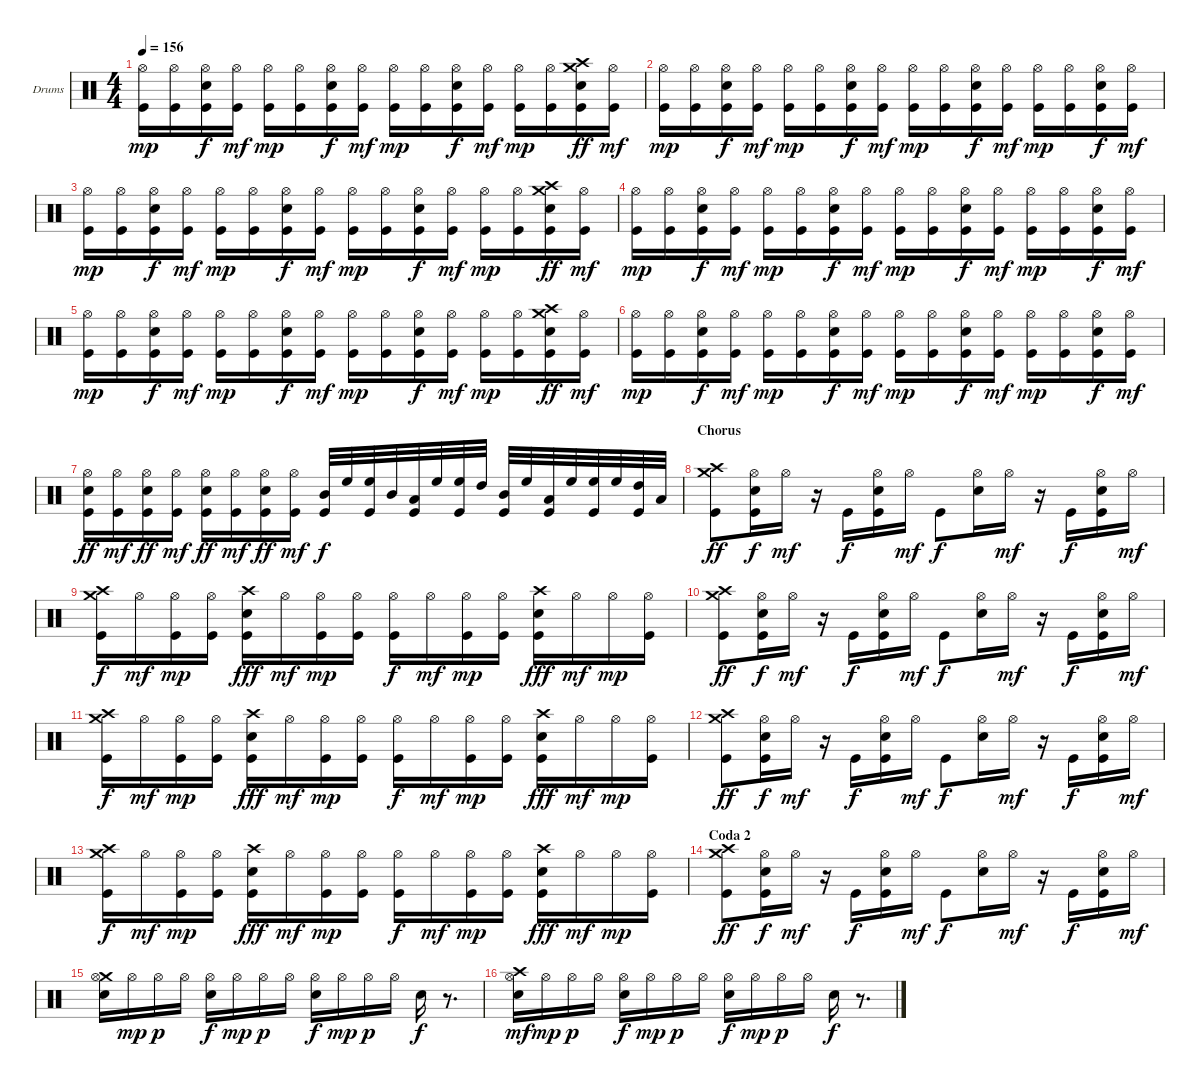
\bracketExtendMode groupsimilarinstruments
\firstSystemTrackNameOrientation horizontal
\otherSystemsTrackNameOrientation horizontal
\track ("Drums" "Drums") {instrument percussion}
\staff {score}
\articulation defaults
\ts (4 4)
\tempo 156
\clef neutral
\ks c
("Hi-Hat (open)" "Kick (hit)").16{dy mp} ("Hi-Hat (open)" "Kick (hit)").16 ("Hi-Hat (open)" "Snare (hit) 2" "Kick (hit)").16{dy f} ("Hi-Hat (open)" "Kick (hit)").16{dy mf} ("Hi-Hat (open)" "Kick (hit)").16{dy mp} ("Hi-Hat (open)" "Kick (hit)").16 ("Hi-Hat (open)" "Snare (hit) 2" "Kick (hit)").16{dy f} ("Hi-Hat (open)" "Kick (hit)").16{dy mf} ("Hi-Hat (open)" "Kick (hit)").16{dy mp} ("Hi-Hat (open)" "Kick (hit)").16 ("Hi-Hat (open)" "Snare (hit) 2" "Kick (hit)").16{dy f} ("Hi-Hat (open)" "Kick (hit)").16{dy mf} ("Hi-Hat (open)" "Kick (hit)").16{dy mp} ("Hi-Hat (open)" "Kick (hit)").16 ("Crash medium (hit)" "Crash high (hit)" "Snare (hit) 2" "Kick (hit)").16{dy ff} ("Hi-Hat (open)" "Kick (hit)").16{dy mf} |
("Hi-Hat (open)" "Kick (hit)").16{dy mp} ("Hi-Hat (open)" "Kick (hit)").16 ("Hi-Hat (open)" "Snare (hit) 2" "Kick (hit)").16{dy f} ("Hi-Hat (open)" "Kick (hit)").16{dy mf} ("Hi-Hat (open)" "Kick (hit)").16{dy mp} ("Hi-Hat (open)" "Kick (hit)").16 ("Hi-Hat (open)" "Snare (hit) 2" "Kick (hit)").16{dy f} ("Hi-Hat (open)" "Kick (hit)").16{dy mf} ("Hi-Hat (open)" "Kick (hit)").16{dy mp} ("Hi-Hat (open)" "Kick (hit)").16 ("Hi-Hat (open)" "Snare (hit) 2" "Kick (hit)").16{dy f} ("Hi-Hat (open)" "Kick (hit)").16{dy mf} ("Hi-Hat (open)" "Kick (hit)").16{dy mp} ("Hi-Hat (open)" "Kick (hit)").16 ("Hi-Hat (open)" "Snare (hit) 2" "Kick (hit)").16{dy f} ("Hi-Hat (open)" "Kick (hit)").16{dy mf} |
("Hi-Hat (open)" "Kick (hit)").16{dy mp} ("Hi-Hat (open)" "Kick (hit)").16 ("Hi-Hat (open)" "Snare (hit) 2" "Kick (hit)").16{dy f} ("Hi-Hat (open)" "Kick (hit)").16{dy mf} ("Hi-Hat (open)" "Kick (hit)").16{dy mp} ("Hi-Hat (open)" "Kick (hit)").16 ("Hi-Hat (open)" "Snare (hit) 2" "Kick (hit)").16{dy f} ("Hi-Hat (open)" "Kick (hit)").16{dy mf} ("Hi-Hat (open)" "Kick (hit)").16{dy mp} ("Hi-Hat (open)" "Kick (hit)").16 ("Hi-Hat (open)" "Snare (hit) 2" "Kick (hit)").16{dy f} ("Hi-Hat (open)" "Kick (hit)").16{dy mf} ("Hi-Hat (open)" "Kick (hit)").16{dy mp} ("Hi-Hat (open)" "Kick (hit)").16 ("Crash medium (hit)" "Crash high (hit)" "Snare (hit) 2" "Kick (hit)").16{dy ff} ("Hi-Hat (open)" "Kick (hit)").16{dy mf} |
("Hi-Hat (open)" "Kick (hit)").16{dy mp} ("Hi-Hat (open)" "Kick (hit)").16 ("Hi-Hat (open)" "Snare (hit) 2" "Kick (hit)").16{dy f} ("Hi-Hat (open)" "Kick (hit)").16{dy mf} ("Hi-Hat (open)" "Kick (hit)").16{dy mp} ("Hi-Hat (open)" "Kick (hit)").16 ("Hi-Hat (open)" "Snare (hit) 2" "Kick (hit)").16{dy f} ("Hi-Hat (open)" "Kick (hit)").16{dy mf} ("Hi-Hat (open)" "Kick (hit)").16{dy mp} ("Hi-Hat (open)" "Kick (hit)").16 ("Hi-Hat (open)" "Snare (hit) 2" "Kick (hit)").16{dy f} ("Hi-Hat (open)" "Kick (hit)").16{dy mf} ("Hi-Hat (open)" "Kick (hit)").16{dy mp} ("Hi-Hat (open)" "Kick (hit)").16 ("Hi-Hat (open)" "Snare (hit) 2" "Kick (hit)").16{dy f} ("Hi-Hat (open)" "Kick (hit)").16{dy mf} |
("Hi-Hat (open)" "Kick (hit)").16{dy mp} ("Hi-Hat (open)" "Kick (hit)").16 ("Hi-Hat (open)" "Snare (hit) 2" "Kick (hit)").16{dy f} ("Hi-Hat (open)" "Kick (hit)").16{dy mf} ("Hi-Hat (open)" "Kick (hit)").16{dy mp} ("Hi-Hat (open)" "Kick (hit)").16 ("Hi-Hat (open)" "Snare (hit) 2" "Kick (hit)").16{dy f} ("Hi-Hat (open)" "Kick (hit)").16{dy mf} ("Hi-Hat (open)" "Kick (hit)").16{dy mp} ("Hi-Hat (open)" "Kick (hit)").16 ("Hi-Hat (open)" "Snare (hit) 2" "Kick (hit)").16{dy f} ("Hi-Hat (open)" "Kick (hit)").16{dy mf} ("Hi-Hat (open)" "Kick (hit)").16{dy mp} ("Hi-Hat (open)" "Kick (hit)").16 ("Crash medium (hit)" "Crash high (hit)" "Snare (hit) 2" "Kick (hit)").16{dy ff} ("Hi-Hat (open)" "Kick (hit)").16{dy mf} |
("Hi-Hat (open)" "Kick (hit)").16{dy mp} ("Hi-Hat (open)" "Kick (hit)").16 ("Hi-Hat (open)" "Snare (hit) 2" "Kick (hit)").16{dy f} ("Hi-Hat (open)" "Kick (hit)").16{dy mf} ("Hi-Hat (open)" "Kick (hit)").16{dy mp} ("Hi-Hat (open)" "Kick (hit)").16 ("Hi-Hat (open)" "Snare (hit) 2" "Kick (hit)").16{dy f} ("Hi-Hat (open)" "Kick (hit)").16{dy mf} ("Hi-Hat (open)" "Kick (hit)").16{dy mp} ("Hi-Hat (open)" "Kick (hit)").16 ("Hi-Hat (open)" "Snare (hit) 2" "Kick (hit)").16{dy f} ("Hi-Hat (open)" "Kick (hit)").16{dy mf} ("Hi-Hat (open)" "Kick (hit)").16{dy mp} ("Hi-Hat (open)" "Kick (hit)").16 ("Hi-Hat (open)" "Snare (hit) 2" "Kick (hit)").16{dy f} ("Hi-Hat (open)" "Kick (hit)").16{dy mf} |
("Hi-Hat (open)" "Snare (hit) 2" "Kick (hit)").16{dy ff} ("Hi-Hat (open)" "Kick (hit)").16{dy mf} ("Hi-Hat (open)" "Snare (hit) 2" "Kick (hit)").16{dy ff} ("Hi-Hat (open)" "Kick (hit)").16{dy mf} ("Hi-Hat (open)" "Snare (hit) 2" "Kick (hit)").16{dy ff} ("Hi-Hat (open)" "Kick (hit)").16{dy mf} ("Hi-Hat (open)" "Snare (hit) 2" "Kick (hit)").16{dy ff} ("Hi-Hat (open)" "Kick (hit)").16{dy mf} ("Mid Tom (hit)" "Kick (hit)").32{dy f} "High Floor Tom (hit)".32 ("High Floor Tom (hit)" "Kick (hit)").32 "Mid Tom (hit)".32 ("Low Tom (hit)" "Kick (hit)").32 "High Floor Tom (hit)".32 ("High Floor Tom (hit)" "Kick (hit)").32 "High Tom (hit)".32 ("Mid Tom (hit)" "Kick (hit)").32 "High Floor Tom (hit)".32 ("Low Tom (hit)" "Kick (hit)").32 "High Floor Tom (hit)".32 ("High Floor Tom (hit)" "Kick (hit)").32 "High Floor Tom (hit)".32 ("High Tom (hit)" "Kick (hit)").32 "Low Tom (hit)".32 |
\section ("" "Chorus")
("Crash medium (hit)" "Crash high (hit)" "Kick (hit)").8{dy ff} ("Hi-Hat (open)" "Snare (hit) 2" "Kick (hit)").16{dy f} "Hi-Hat (open)".16{dy mf} r.16 "Kick (hit)".16{dy f} ("Hi-Hat (open)" "Snare (hit) 2" "Kick (hit)").16 "Hi-Hat (open)".16{dy mf} "Kick (hit)".8{dy f} ("Hi-Hat (open)" "Snare (hit) 2").16 "Hi-Hat (open)".16{dy mf} r.16 "Kick (hit)".16{dy f} ("Hi-Hat (open)" "Snare (hit) 2" "Kick (hit)").16 "Hi-Hat (open)".16{dy mf} |
("Crash medium (hit)" "Crash high (hit)" "Kick (hit)").16{dy f} "Hi-Hat (open)".16{dy mf} ("Hi-Hat (open)" "Kick (hit)").16{dy mp} ("Hi-Hat (open)" "Kick (hit)").16 ("Crash high (hit)" "Snare (hit) 2" "Kick (hit)").16{dy fff} "Hi-Hat (open)".16{dy mf} ("Hi-Hat (open)" "Kick (hit)").16{dy mp} ("Hi-Hat (open)" "Kick (hit)").16 ("Hi-Hat (open)" "Kick (hit)").16{dy f} "Hi-Hat (open)".16{dy mf} ("Hi-Hat (open)" "Kick (hit)").16{dy mp} ("Hi-Hat (open)" "Kick (hit)").16 ("Crash high (hit)" "Snare (hit) 2" "Kick (hit)").16{dy fff} "Hi-Hat (open)".16{dy mf} "Hi-Hat (open)".16{dy mp} ("Hi-Hat (open)" "Kick (hit)").16 |
("Crash medium (hit)" "Crash high (hit)" "Kick (hit)").8{dy ff} ("Hi-Hat (open)" "Snare (hit) 2" "Kick (hit)").16{dy f} "Hi-Hat (open)".16{dy mf} r.16 "Kick (hit)".16{dy f} ("Hi-Hat (open)" "Snare (hit) 2" "Kick (hit)").16 "Hi-Hat (open)".16{dy mf} "Kick (hit)".8{dy f} ("Hi-Hat (open)" "Snare (hit) 2").16 "Hi-Hat (open)".16{dy mf} r.16 "Kick (hit)".16{dy f} ("Hi-Hat (open)" "Snare (hit) 2" "Kick (hit)").16 "Hi-Hat (open)".16{dy mf} |
("Crash medium (hit)" "Crash high (hit)" "Kick (hit)").16{dy f} "Hi-Hat (open)".16{dy mf} ("Hi-Hat (open)" "Kick (hit)").16{dy mp} ("Hi-Hat (open)" "Kick (hit)").16 ("Crash high (hit)" "Snare (hit) 2" "Kick (hit)").16{dy fff} "Hi-Hat (open)".16{dy mf} ("Hi-Hat (open)" "Kick (hit)").16{dy mp} ("Hi-Hat (open)" "Kick (hit)").16 ("Hi-Hat (open)" "Kick (hit)").16{dy f} "Hi-Hat (open)".16{dy mf} ("Hi-Hat (open)" "Kick (hit)").16{dy mp} ("Hi-Hat (open)" "Kick (hit)").16 ("Crash high (hit)" "Snare (hit) 2" "Kick (hit)").16{dy fff} "Hi-Hat (open)".16{dy mf} "Hi-Hat (open)".16{dy mp} ("Hi-Hat (open)" "Kick (hit)").16 |
("Crash medium (hit)" "Crash high (hit)" "Kick (hit)").8{dy ff} ("Hi-Hat (open)" "Snare (hit) 2" "Kick (hit)").16{dy f} "Hi-Hat (open)".16{dy mf} r.16 "Kick (hit)".16{dy f} ("Hi-Hat (open)" "Snare (hit) 2" "Kick (hit)").16 "Hi-Hat (open)".16{dy mf} "Kick (hit)".8{dy f} ("Hi-Hat (open)" "Snare (hit) 2").16 "Hi-Hat (open)".16{dy mf} r.16 "Kick (hit)".16{dy f} ("Hi-Hat (open)" "Snare (hit) 2" "Kick (hit)").16 "Hi-Hat (open)".16{dy mf} |
("Crash medium (hit)" "Crash high (hit)" "Kick (hit)").16{dy f} "Hi-Hat (open)".16{dy mf} ("Hi-Hat (open)" "Kick (hit)").16{dy mp} ("Hi-Hat (open)" "Kick (hit)").16 ("Crash high (hit)" "Snare (hit) 2" "Kick (hit)").16{dy fff} "Hi-Hat (open)".16{dy mf} ("Hi-Hat (open)" "Kick (hit)").16{dy mp} ("Hi-Hat (open)" "Kick (hit)").16 ("Hi-Hat (open)" "Kick (hit)").16{dy f} "Hi-Hat (open)".16{dy mf} ("Hi-Hat (open)" "Kick (hit)").16{dy mp} ("Hi-Hat (open)" "Kick (hit)").16 ("Crash high (hit)" "Snare (hit) 2" "Kick (hit)").16{dy fff} "Hi-Hat (open)".16{dy mf} "Hi-Hat (open)".16{dy mp} ("Hi-Hat (open)" "Kick (hit)").16 |
\section ("" "Coda 2")
("Crash medium (hit)" "Crash high (hit)" "Kick (hit)").8{dy ff} ("Hi-Hat (open)" "Snare (hit) 2" "Kick (hit)").16{dy f} "Hi-Hat (open)".16{dy mf} r.16 "Kick (hit)".16{dy f} ("Hi-Hat (open)" "Snare (hit) 2" "Kick (hit)").16 "Hi-Hat (open)".16{dy mf} "Kick (hit)".8{dy f} ("Hi-Hat (open)" "Snare (hit) 2").16 "Hi-Hat (open)".16{dy mf} r.16 "Kick (hit)".16{dy f} ("Hi-Hat (open)" "Snare (hit) 2" "Kick (hit)").16 "Hi-Hat (open)".16{dy mf} |
("Crash medium (hit)" "Hi-Hat (open)" "Snare (hit) 2").16 "Hi-Hat (open)".16{dy mp} "Hi-Hat (open)".16{dy p} "Hi-Hat (open)".16 ("Hi-Hat (open)" "Snare (hit) 2").16{dy f} "Hi-Hat (open)".16{dy mp} "Hi-Hat (open)".16{dy p} "Hi-Hat (open)".16 ("Hi-Hat (open)" "Snare (hit) 2").16{dy f} "Hi-Hat (open)".16{dy mp} "Hi-Hat (open)".16{dy p} "Hi-Hat (open)".16 "Snare (hit) 2".16{dy f} r.8{d} |
("Crash high (hit)" "Hi-Hat (open)" "Snare (hit) 2").16{dy mf} "Hi-Hat (open)".16{dy mp} "Hi-Hat (open)".16{dy p} "Hi-Hat (open)".16 ("Hi-Hat (open)" "Snare (hit) 2").16{dy f} "Hi-Hat (open)".16{dy mp} "Hi-Hat (open)".16{dy p} "Hi-Hat (open)".16 ("Hi-Hat (open)" "Snare (hit) 2").16{dy f} "Hi-Hat (open)".16{dy mp} "Hi-Hat (open)".16{dy p} "Hi-Hat (open)".16 "Snare (hit) 2".16{dy f} r.8{d}
